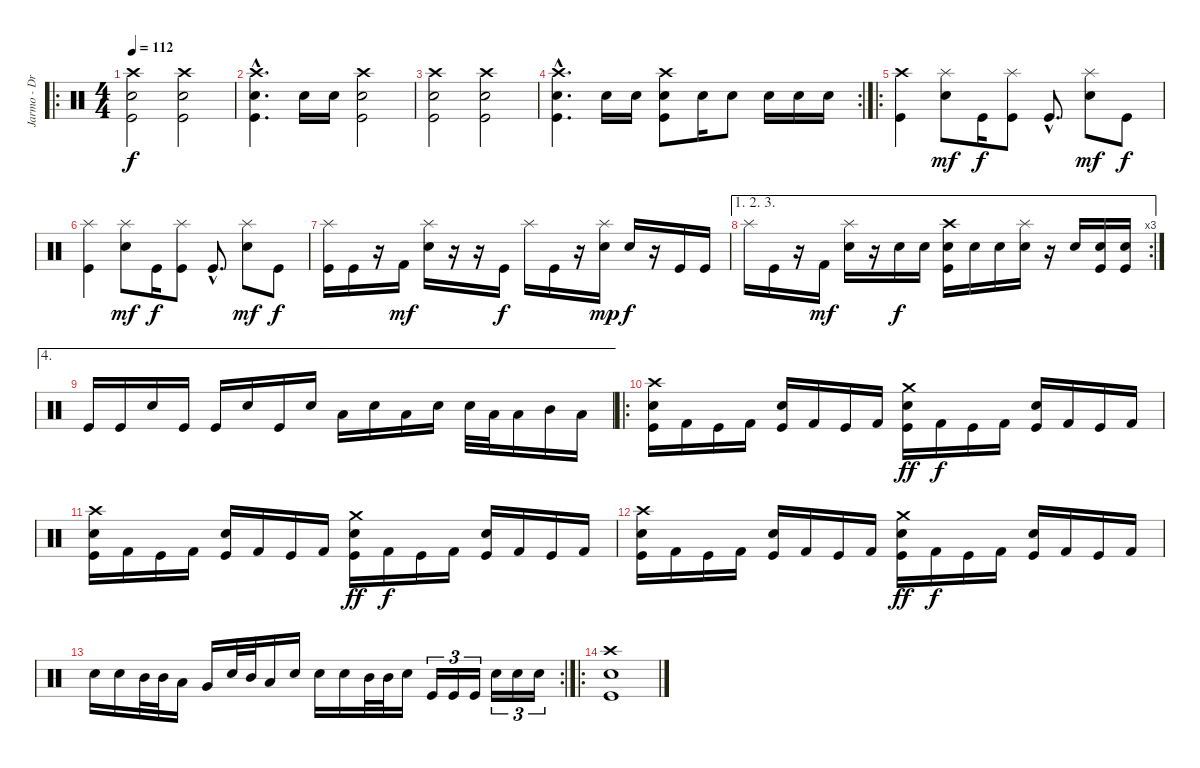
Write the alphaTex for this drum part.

\track ("Jarmo - Drummies" "Jarmo - Dr") {instrument percussion}
\staff {score}
\articulation defaults
\ro
\ts (4 4)
\tempo 112
\clef neutral
\ks c
("Crash high (hit)" "Electric Snare (hit)" "Kick (hit)").2{dy f} ("Crash high (hit)" "Electric Snare (hit)" "Kick (hit)").2 |
("Crash high (hit)"{hac} "Electric Snare (hit)"{hac} "Kick (hit)"{hac}).4{d} "Electric Snare (hit)".16 "Electric Snare (hit)".16 ("Crash high (hit)" "Electric Snare (hit)" "Kick (hit)").2 |
("Crash high (hit)" "Electric Snare (hit)" "Kick (hit)").2 ("Crash high (hit)" "Electric Snare (hit)" "Kick (hit)").2 |
\rc 2
("Crash high (hit)"{hac} "Electric Snare (hit)"{hac} "Kick (hit)"{hac}).4{d} "Electric Snare (hit)".16 "Electric Snare (hit)".16 ("Crash high (hit)" "Electric Snare (hit)" "Kick (hit)").8 "Electric Snare (hit)".16 "Electric Snare (hit)".8 "Electric Snare (hit)".16 "Electric Snare (hit)".16 "Electric Snare (hit)".16 |
\ro
("Crash high (hit)" "Kick (hit)").4 ("Electric Snare (hit)" "Splash (hit)").8{dy mf} "Kick (hit)".16{dy f} ("Kick (hit)" "Splash (hit)").8 "Kick (hit)"{hac}.8{d} ("Electric Snare (hit)" "Splash (hit)").8{dy mf} "Kick (hit)".8{dy f} |
("Kick (hit)" "Splash (hit)").4 ("Electric Snare (hit)" "Splash (hit)").8{dy mf} "Kick (hit)".16{dy f} ("Kick (hit)" "Splash (hit)").8 "Kick (hit)"{hac}.8{d} ("Electric Snare (hit)" "Splash (hit)").8{dy mf} "Kick (hit)".8{dy f} |
("Kick (hit)" "Splash (hit)").16 "Kick (hit)".16 r.16 "Kick (hit) 2".16{dy mf} ("Electric Snare (hit)" "Splash (hit)").16 r.16 r.16 "Kick (hit)".16{dy f} "Splash (hit)".16 "Kick (hit)".16 r.16 ("Electric Snare (hit)" "Splash (hit)").16{dy mp} "Electric Snare (hit)".16{dy f} r.16 "Kick (hit)".16 "Kick (hit)".16 |
\ae (1 2 3)
\rc 3 "Splash (hit)".16 "Kick (hit)".16
r.16 "Kick (hit) 2".16{dy mf} ("Electric Snare (hit)" "Splash (hit)").16 r.16 "Electric Snare (hit)".16{dy f} "Electric Snare (hit)".16 ("Crash high (hit)" "Electric Snare (hit)" "Kick (hit)").16 "Electric Snare (hit)".16 "Electric Snare (hit)".16 ("Electric Snare (hit)" "Splash (hit)").16 r.16 "Electric Snare (hit)".16 ("Kick (hit)" "Electric Snare (hit)").16 ("Kick (hit)" "Electric Snare (hit)").16 |
\ae 4 "Kick (hit)".16 "Kick (hit)".16 "Electric Snare (hit)".16 "Kick (hit)".16 "Kick (hit)".16 "Electric Snare (hit)".16 "Kick (hit)".16 "Electric Snare (hit)".16 "Low Tom (hit)".16 "Electric Snare (hit)".16 "Low Tom (hit)".16 "Electric Snare (hit)".16 "Electric Snare (hit)".32 "Low Tom (hit)".32 "Low Tom (hit)".16 "Mid Tom (hit)".16 "Low Tom (hit)".16
|
\ro
("Kick (hit)" "Electric Snare (hit)" "Crash high (hit)").16 "Kick (hit) 2".16 "Kick (hit)".16 "Kick (hit) 2".16 ("Kick (hit)" "Electric Snare (hit)").16 "Kick (hit) 2".16 "Kick (hit)".16 "Kick (hit) 2".16 ("Kick (hit)" "Electric Snare (hit)" "Crash medium (hit)").16{dy ff} "Kick (hit) 2".16{dy f} "Kick (hit)".16 "Kick (hit) 2".16 ("Kick (hit)" "Electric Snare (hit)").16 "Kick (hit) 2".16 "Kick (hit)".16 "Kick (hit) 2".16 |
("Kick (hit)" "Electric Snare (hit)" "Crash high (hit)").16 "Kick (hit) 2".16 "Kick (hit)".16 "Kick (hit) 2".16 ("Kick (hit)" "Electric Snare (hit)").16 "Kick (hit) 2".16 "Kick (hit)".16 "Kick (hit) 2".16 ("Kick (hit)" "Electric Snare (hit)" "Crash medium (hit)").16{dy ff} "Kick (hit) 2".16{dy f} "Kick (hit)".16 "Kick (hit) 2".16 ("Kick (hit)" "Electric Snare (hit)").16 "Kick (hit) 2".16 "Kick (hit)".16 "Kick (hit) 2".16 |
("Kick (hit)" "Electric Snare (hit)" "Crash high (hit)").16 "Kick (hit) 2".16 "Kick (hit)".16 "Kick (hit) 2".16 ("Kick (hit)" "Electric Snare (hit)").16 "Kick (hit) 2".16 "Kick (hit)".16 "Kick (hit) 2".16 ("Kick (hit)" "Electric Snare (hit)" "Crash medium (hit)").16{dy ff} "Kick (hit) 2".16{dy f} "Kick (hit)".16 "Kick (hit) 2".16 ("Kick (hit)" "Electric Snare (hit)").16 "Kick (hit) 2".16 "Kick (hit)".16 "Kick (hit) 2".16 |
\rc 2 "Electric Snare (hit)".16 "Electric Snare (hit)".16 "Mid Tom (hit)".32 "Mid Tom (hit)".32 "Low Tom (hit)".16 "Very Low Tom (hit)".16 "Electric Snare (hit)".32 "Mid Tom (hit)".32 "Low Tom (hit)".16 "Electric Snare (hit)".16 "Electric Snare (hit)".16 "Electric Snare (hit)".16 "Mid Tom (hit)".32 "Mid Tom (hit)".32 "Electric Snare (hit)".16 "Kick (hit)".16{tu (3 2)} "Kick (hit)".16{tu (3 2)} "Kick (hit)".16{tu (3 2)} "Electric Snare (hit)".16{tu (3 2)} "Electric Snare (hit)".16{tu (3 2)} "Electric Snare (hit)".16{tu (3 2)}
|
\ro
("Crash high (hit)" "Electric Snare (hit)" "Kick (hit)").1
